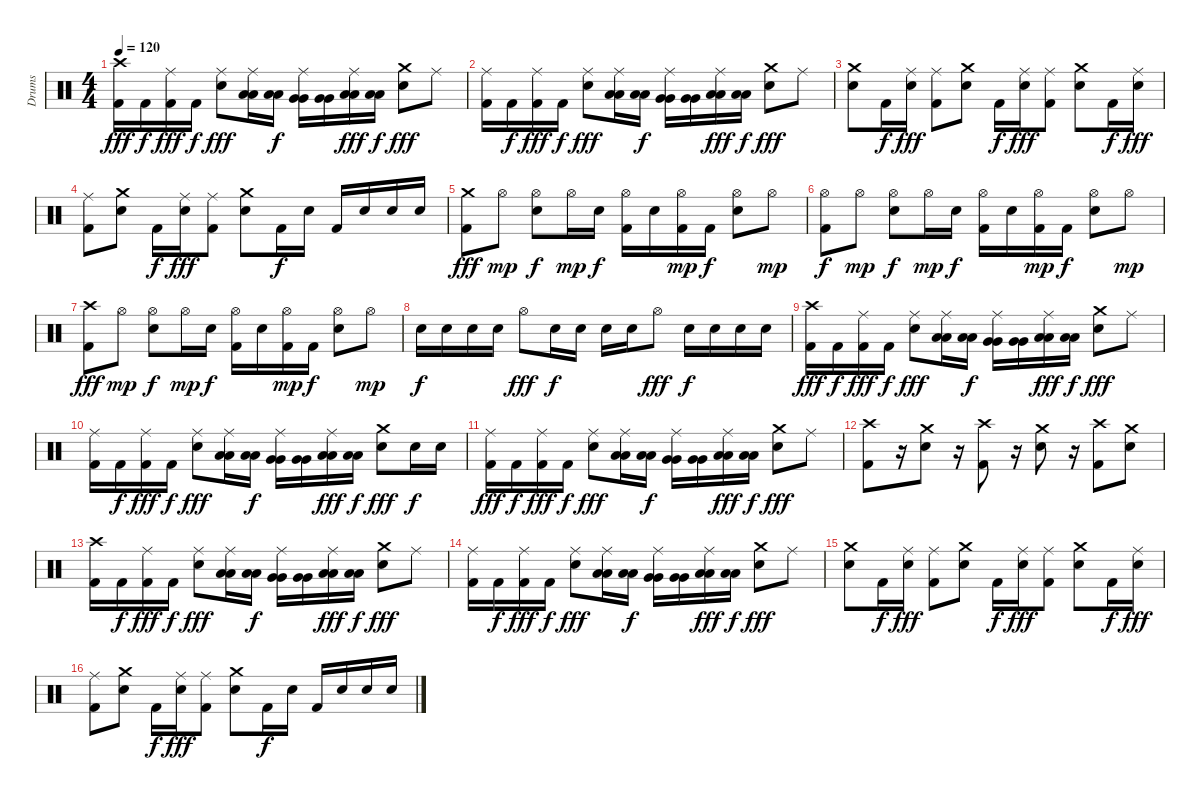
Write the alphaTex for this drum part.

\track ("Drums" "Drums") {instrument percussion}
\staff {score}
\articulation defaults
\ts (4 4)
\tempo 120
\clef neutral
\ks c
("Kick (hit) 2" "Crash high (hit)").16{dy fff volume 6} "Kick (hit) 2".16{dy f} ("Kick (hit) 2" "Ride (middle)").16{dy fff} "Kick (hit) 2".16{dy f} ("Electric Snare (hit)" "Ride (middle)").8{dy fff} ("Low Tom (hit)" "Low Tom (hit)" "Ride (middle)").16 ("Low Tom (hit)" "Low Tom (hit)").16{dy f} ("Very Low Tom (hit)" "Very Low Tom (hit)" "Ride (middle)").16 ("Very Low Tom (hit)" "Very Low Tom (hit)").16 ("Low Floor Tom (hit)" "Low Floor Tom (hit)" "Ride (middle)").16{dy fff} ("Low Floor Tom (hit)" "Low Floor Tom (hit)").16{dy f} ("Electric Snare (hit)" "Crash medium (hit)").8{dy fff} "Ride (middle)".8 |
("Kick (hit) 2" "Ride (middle)").16 "Kick (hit) 2".16{dy f} ("Kick (hit) 2" "Ride (middle)").16{dy fff} "Kick (hit) 2".16{dy f} ("Electric Snare (hit)" "Ride (middle)").8{dy fff} ("Low Tom (hit)" "Low Tom (hit)" "Ride (middle)").16 ("Low Tom (hit)" "Low Tom (hit)").16{dy f} ("Very Low Tom (hit)" "Very Low Tom (hit)" "Ride (middle)").16 ("Very Low Tom (hit)" "Very Low Tom (hit)").16 ("Low Floor Tom (hit)" "Low Floor Tom (hit)" "Ride (middle)").16{dy fff} ("Low Floor Tom (hit)" "Low Floor Tom (hit)").16{dy f} ("Electric Snare (hit)" "Crash medium (hit)").8{dy fff} "Ride (middle)".8 |
("Electric Snare (hit)" "Crash medium (hit)").8 "Kick (hit) 2".16{dy f} ("Electric Snare (hit)" "Ride (middle)").16{dy fff} ("Kick (hit) 2" "Ride (middle)").8 ("Electric Snare (hit)" "Crash medium (hit)").8 "Kick (hit) 2".16{dy f} ("Electric Snare (hit)" "Ride (middle)").16{dy fff} ("Kick (hit) 2" "Ride (middle)").8 ("Electric Snare (hit)" "Crash medium (hit)").8 "Kick (hit) 2".16{dy f} ("Electric Snare (hit)" "Ride (middle)").16{dy fff} |
("Kick (hit) 2" "Ride (middle)").8 ("Electric Snare (hit)" "Crash medium (hit)").8 "Kick (hit) 2".16{dy f} ("Electric Snare (hit)" "Ride (middle)").16{dy fff} ("Kick (hit) 2" "Ride (middle)").8 ("Electric Snare (hit)" "Crash medium (hit)").8 "Kick (hit) 2".16{dy f} "Electric Snare (hit)".16 "Kick (hit) 2".16 "Electric Snare (hit)".16 "Electric Snare (hit)".16 "Electric Snare (hit)".16 |
("Kick (hit) 2" "Crash medium (hit)").8{dy fff volume 4} "Hi-Hat (open)".8{dy mp} ("Electric Snare (hit)" "Hi-Hat (open)").8{dy f} "Hi-Hat (open)".16{dy mp} "Electric Snare (hit)".16{dy f} ("Kick (hit) 2" "Hi-Hat (open)").16 "Electric Snare (hit)".16 ("Kick (hit) 2" "Hi-Hat (open)").16{dy mp} "Kick (hit) 2".16{dy f} ("Electric Snare (hit)" "Hi-Hat (open)").8 "Hi-Hat (open)".8{dy mp} |
("Kick (hit) 2" "Hi-Hat (open)").8{dy f} "Hi-Hat (open)".8{dy mp} ("Electric Snare (hit)" "Hi-Hat (open)").8{dy f} "Hi-Hat (open)".16{dy mp} "Electric Snare (hit)".16{dy f} ("Kick (hit) 2" "Hi-Hat (open)").16 "Electric Snare (hit)".16 ("Kick (hit) 2" "Hi-Hat (open)").16{dy mp} "Kick (hit) 2".16{dy f} ("Electric Snare (hit)" "Hi-Hat (open)").8 "Hi-Hat (open)".8{dy mp} |
("Kick (hit) 2" "Crash high (hit)").8{dy fff} "Hi-Hat (open)".8{dy mp} ("Electric Snare (hit)" "Hi-Hat (open)").8{dy f} "Hi-Hat (open)".16{dy mp} "Electric Snare (hit)".16{dy f} ("Kick (hit) 2" "Hi-Hat (open)").16 "Electric Snare (hit)".16 ("Kick (hit) 2" "Hi-Hat (open)").16{dy mp} "Kick (hit) 2".16{dy f} ("Electric Snare (hit)" "Hi-Hat (open)").8 "Hi-Hat (open)".8{dy mp} |
"Electric Snare (hit)".16{dy f} "Electric Snare (hit)".16 "Electric Snare (hit)".16 "Electric Snare (hit)".16 "Hi-Hat (open)".8{dy fff} "Electric Snare (hit)".16{dy f} "Electric Snare (hit)".16 "Electric Snare (hit)".16 "Electric Snare (hit)".16 "Hi-Hat (open)".8{dy fff} "Electric Snare (hit)".16{dy f} "Electric Snare (hit)".16 "Electric Snare (hit)".16 "Electric Snare (hit)".16 |
("Kick (hit) 2" "Crash high (hit)").16{dy fff volume 3} "Kick (hit) 2".16{dy f} ("Kick (hit) 2" "Ride (middle)").16{dy fff} "Kick (hit) 2".16{dy f} ("Electric Snare (hit)" "Ride (middle)").8{dy fff} ("Low Tom (hit)" "Low Tom (hit)" "Ride (middle)").16 ("Low Tom (hit)" "Low Tom (hit)").16{dy f} ("Very Low Tom (hit)" "Very Low Tom (hit)" "Ride (middle)").16 ("Very Low Tom (hit)" "Very Low Tom (hit)").16 ("Low Floor Tom (hit)" "Low Floor Tom (hit)" "Ride (middle)").16{dy fff} ("Low Floor Tom (hit)" "Low Floor Tom (hit)").16{dy f} ("Electric Snare (hit)" "Crash medium (hit)").8{dy fff} "Ride (middle)".8 |
("Kick (hit) 2" "Ride (middle)").16 "Kick (hit) 2".16{dy f} ("Kick (hit) 2" "Ride (middle)").16{dy fff} "Kick (hit) 2".16{dy f} ("Electric Snare (hit)" "Ride (middle)").8{dy fff} ("Low Tom (hit)" "Low Tom (hit)" "Ride (middle)").16 ("Low Tom (hit)" "Low Tom (hit)").16{dy f} ("Very Low Tom (hit)" "Very Low Tom (hit)" "Ride (middle)").16 ("Very Low Tom (hit)" "Very Low Tom (hit)").16 ("Low Floor Tom (hit)" "Low Floor Tom (hit)" "Ride (middle)").16{dy fff} ("Low Floor Tom (hit)" "Low Floor Tom (hit)").16{dy f} ("Electric Snare (hit)" "Crash medium (hit)").8{dy fff} "Electric Snare (hit)".16{dy f} "Electric Snare (hit)".16 |
("Kick (hit) 2" "Ride (middle)").16{dy fff} "Kick (hit) 2".16{dy f} ("Kick (hit) 2" "Ride (middle)").16{dy fff} "Kick (hit) 2".16{dy f} ("Electric Snare (hit)" "Ride (middle)").8{dy fff} ("Low Tom (hit)" "Low Tom (hit)" "Ride (middle)").16 ("Low Tom (hit)" "Low Tom (hit)").16{dy f} ("Very Low Tom (hit)" "Very Low Tom (hit)" "Ride (middle)").16 ("Very Low Tom (hit)" "Very Low Tom (hit)").16 ("Low Floor Tom (hit)" "Low Floor Tom (hit)" "Ride (middle)").16{dy fff} ("Low Floor Tom (hit)" "Low Floor Tom (hit)").16{dy f} ("Electric Snare (hit)" "Crash medium (hit)").8{dy fff} "Ride (middle)".8 |
("Kick (hit) 2" "Crash high (hit)").8 r.16 ("Electric Snare (hit)" "Crash medium (hit)").8 r.16 ("Kick (hit) 2" "Crash high (hit)").8 r.16 ("Electric Snare (hit)" "Crash medium (hit)").8 r.16 ("Kick (hit) 2" "Crash high (hit)").8 ("Electric Snare (hit)" "Crash medium (hit)").8 |
("Kick (hit) 2" "Crash high (hit)").16{volume 1} "Kick (hit) 2".16{dy f} ("Kick (hit) 2" "Ride (middle)").16{dy fff} "Kick (hit) 2".16{dy f} ("Electric Snare (hit)" "Ride (middle)").8{dy fff} ("Low Tom (hit)" "Low Tom (hit)" "Ride (middle)").16 ("Low Tom (hit)" "Low Tom (hit)").16{dy f} ("Very Low Tom (hit)" "Very Low Tom (hit)" "Ride (middle)").16 ("Very Low Tom (hit)" "Very Low Tom (hit)").16 ("Low Floor Tom (hit)" "Low Floor Tom (hit)" "Ride (middle)").16{dy fff} ("Low Floor Tom (hit)" "Low Floor Tom (hit)").16{dy f} ("Electric Snare (hit)" "Crash medium (hit)").8{dy fff} "Ride (middle)".8 |
("Kick (hit) 2" "Ride (middle)").16 "Kick (hit) 2".16{dy f} ("Kick (hit) 2" "Ride (middle)").16{dy fff} "Kick (hit) 2".16{dy f} ("Electric Snare (hit)" "Ride (middle)").8{dy fff} ("Low Tom (hit)" "Low Tom (hit)" "Ride (middle)").16 ("Low Tom (hit)" "Low Tom (hit)").16{dy f} ("Very Low Tom (hit)" "Very Low Tom (hit)" "Ride (middle)").16 ("Very Low Tom (hit)" "Very Low Tom (hit)").16 ("Low Floor Tom (hit)" "Low Floor Tom (hit)" "Ride (middle)").16{dy fff} ("Low Floor Tom (hit)" "Low Floor Tom (hit)").16{dy f} ("Electric Snare (hit)" "Crash medium (hit)").8{dy fff} "Ride (middle)".8 |
("Electric Snare (hit)" "Crash medium (hit)").8 "Kick (hit) 2".16{dy f} ("Electric Snare (hit)" "Ride (middle)").16{dy fff} ("Kick (hit) 2" "Ride (middle)").8 ("Electric Snare (hit)" "Crash medium (hit)").8 "Kick (hit) 2".16{dy f} ("Electric Snare (hit)" "Ride (middle)").16{dy fff} ("Kick (hit) 2" "Ride (middle)").8 ("Electric Snare (hit)" "Crash medium (hit)").8 "Kick (hit) 2".16{dy f} ("Electric Snare (hit)" "Ride (middle)").16{dy fff} |
("Kick (hit) 2" "Ride (middle)").8 ("Electric Snare (hit)" "Crash medium (hit)").8 "Kick (hit) 2".16{dy f} ("Electric Snare (hit)" "Ride (middle)").16{dy fff} ("Kick (hit) 2" "Ride (middle)").8 ("Electric Snare (hit)" "Crash medium (hit)").8 "Kick (hit) 2".16{dy f} "Electric Snare (hit)".16 "Kick (hit) 2".16 "Electric Snare (hit)".16 "Electric Snare (hit)".16 "Electric Snare (hit)".16
